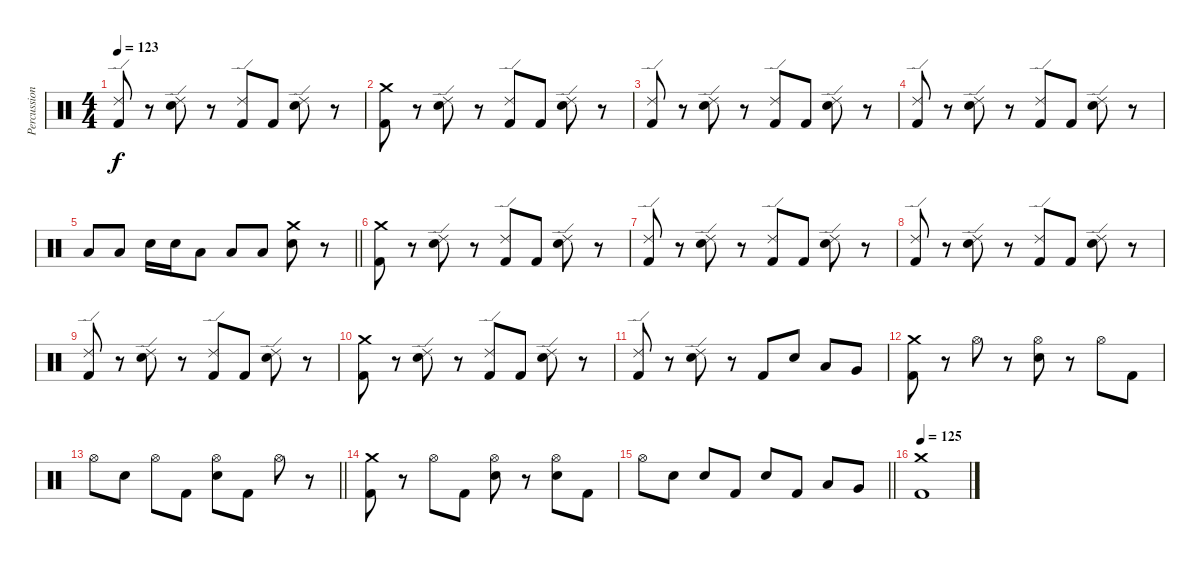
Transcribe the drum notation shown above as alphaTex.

\track ("Percussion" "Percussion") {instrument percussion}
\staff {score}
\articulation defaults
\ts (4 4)
\tempo 123
\clef neutral
\ks c
("Ride (edge) 2" "Kick (hit) 2").8{dy f} r.8 ("Ride (edge) 2" "Electric Snare (hit)").8 r.8 ("Ride (edge) 2" "Kick (hit) 2").8 "Kick (hit) 2".8 ("Ride (edge) 2" "Electric Snare (hit)").8 r.8 |
("Crash medium (hit)" "Kick (hit) 2").8 r.8 ("Ride (edge) 2" "Electric Snare (hit)").8 r.8 ("Ride (edge) 2" "Kick (hit) 2").8 "Kick (hit) 2".8 ("Ride (edge) 2" "Electric Snare (hit)").8 r.8 |
("Ride (edge) 2" "Kick (hit) 2").8 r.8 ("Ride (edge) 2" "Electric Snare (hit)").8 r.8 ("Ride (edge) 2" "Kick (hit) 2").8 "Kick (hit) 2".8 ("Ride (edge) 2" "Electric Snare (hit)").8 r.8 |
("Ride (edge) 2" "Kick (hit) 2").8 r.8 ("Ride (edge) 2" "Electric Snare (hit)").8 r.8 ("Ride (edge) 2" "Kick (hit) 2").8 "Kick (hit) 2".8 ("Ride (edge) 2" "Electric Snare (hit)").8 r.8 |
\barLineRight lightlight "Low Tom (hit)".8 "Low Tom (hit)".8 "Electric Snare (hit)".16 "Electric Snare (hit)".16 "Low Tom (hit)".8 "Low Tom (hit)".8 "Low Tom (hit)".8
("Crash medium (hit)" "Electric Snare (hit)").8 r.8 |
("Crash medium (hit)" "Kick (hit) 2").8 r.8 ("Ride (edge) 2" "Electric Snare (hit)").8 r.8 ("Ride (edge) 2" "Kick (hit) 2").8 "Kick (hit) 2".8 ("Ride (edge) 2" "Electric Snare (hit)").8 r.8 |
("Ride (edge) 2" "Kick (hit) 2").8 r.8 ("Ride (edge) 2" "Electric Snare (hit)").8 r.8 ("Ride (edge) 2" "Kick (hit) 2").8 "Kick (hit) 2".8 ("Ride (edge) 2" "Electric Snare (hit)").8 r.8 |
("Ride (edge) 2" "Kick (hit) 2").8 r.8 ("Ride (edge) 2" "Electric Snare (hit)").8 r.8 ("Ride (edge) 2" "Kick (hit) 2").8 "Kick (hit) 2".8 ("Ride (edge) 2" "Electric Snare (hit)").8 r.8 |
("Ride (edge) 2" "Kick (hit) 2").8 r.8 ("Ride (edge) 2" "Electric Snare (hit)").8 r.8 ("Ride (edge) 2" "Kick (hit) 2").8 "Kick (hit) 2".8 ("Ride (edge) 2" "Electric Snare (hit)").8 r.8 |
("Crash medium (hit)" "Kick (hit) 2").8 r.8 ("Ride (edge) 2" "Electric Snare (hit)").8 r.8 ("Ride (edge) 2" "Kick (hit) 2").8 "Kick (hit) 2".8 ("Ride (edge) 2" "Electric Snare (hit)").8 r.8 |
("Ride (edge) 2" "Kick (hit) 2").8 r.8 ("Ride (edge) 2" "Electric Snare (hit)").8 r.8 "Kick (hit) 2".8 "Electric Snare (hit)".8 "Low Tom (hit)".8 "Very Low Tom (hit)".8 |
("Crash medium (hit)" "Kick (hit) 2").8 r.8 "Hi-Hat (open)".8 r.8 ("Hi-Hat (open)" "Electric Snare (hit)").8 r.8 "Hi-Hat (open)".8 "Kick (hit) 2".8 |
\barLineRight lightlight "Hi-Hat (open)".8 "Electric Snare (hit)".8 "Hi-Hat (open)".8 "Kick (hit) 2".8
("Hi-Hat (open)" "Electric Snare (hit)").8 "Kick (hit) 2".8 "Hi-Hat (open)".8 r.8 |
("Crash medium (hit)" "Kick (hit) 2").8 r.8 "Hi-Hat (open)".8 "Kick (hit) 2".8 ("Hi-Hat (open)" "Electric Snare (hit)").8 r.8 ("Hi-Hat (open)" "Electric Snare (hit)").8 "Kick (hit) 2".8 |
\barLineRight lightlight "Hi-Hat (open)".8 "Electric Snare (hit)".8 "Electric Snare (hit)".8 "Kick (hit) 2".8 "Electric Snare (hit)".8 "Kick (hit) 2".8 "Low Tom (hit)".8 "Very Low Tom (hit)".8
|
\tempo 125
("Kick (hit) 2" "Crash medium (hit)").1
